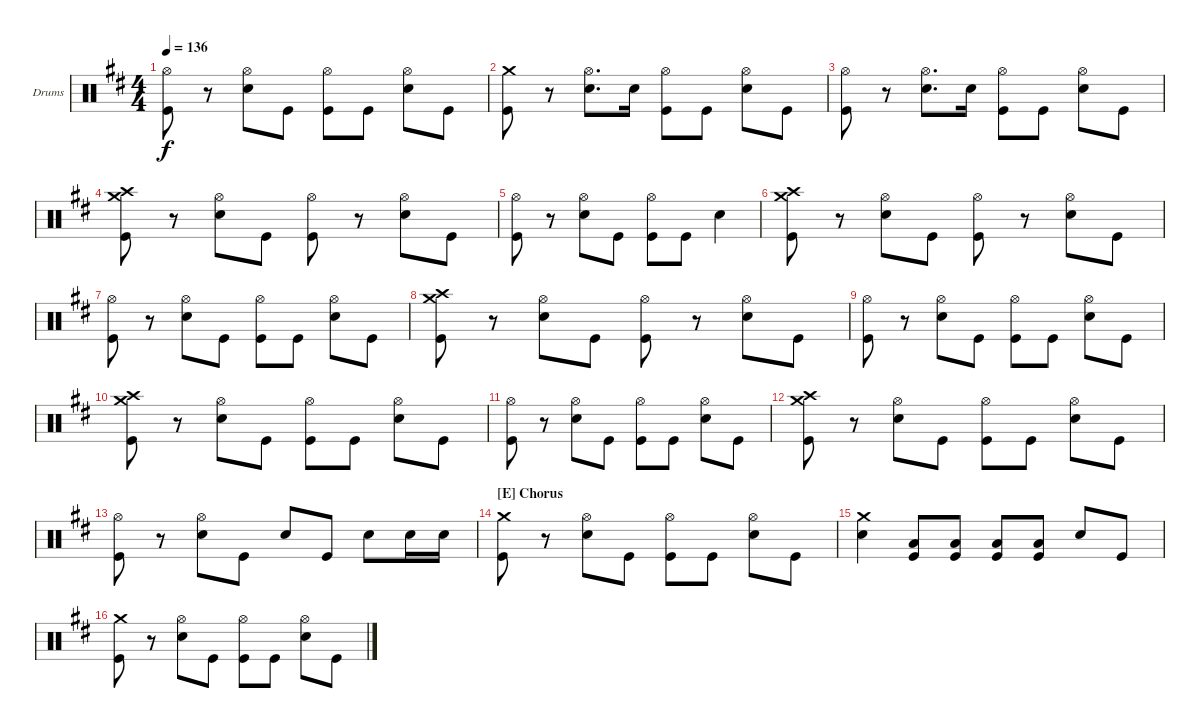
\defaultSystemsLayout 4
\bracketExtendMode groupsimilarinstruments
\firstSystemTrackNameOrientation horizontal
\otherSystemsTrackNameOrientation horizontal
\track ("Drumkit" "Drums") {instrument percussion}
\staff {score}
\articulation defaults
\ts (4 4)
\tempo 136
\clef neutral
\scale
1.05044
\ks d
("Hi-Hat (open)" "Kick (hit)").8{dy f} r.8 ("Hi-Hat (open)" "Snare (hit) 2").8 "Kick (hit)".8 ("Hi-Hat (open)" "Kick (hit)").8 "Kick (hit)".8 ("Hi-Hat (open)" "Snare (hit) 2").8 "Kick (hit)".8 |
\scale
0.949559 ("Crash medium (hit)" "Kick (hit)").8 r.8 ("Hi-Hat (open)" "Snare (hit) 2").8{d} "Snare (hit) 2".16 ("Hi-Hat (open)" "Kick (hit)").8 "Kick (hit)".8 ("Hi-Hat (open)" "Snare (hit) 2").8 "Kick (hit)".8 |
\scale
1.05044 ("Hi-Hat (open)" "Kick (hit)").8 r.8 ("Hi-Hat (open)" "Snare (hit) 2").8{d} "Snare (hit) 2".16 ("Hi-Hat (open)" "Kick (hit)").8 "Kick (hit)".8 ("Hi-Hat (open)" "Snare (hit) 2").8 "Kick (hit)".8 |
\scale
0.949559 ("Crash high (hit)" "Crash medium (hit)" "Kick (hit)").8 r.8 ("Hi-Hat (open)" "Snare (hit) 2").8 "Kick (hit)".8 ("Hi-Hat (open)" "Kick (hit)").8 r.8 ("Hi-Hat (open)" "Snare (hit) 2").8 "Kick (hit)".8 |
\scale
1.05044 ("Hi-Hat (open)" "Kick (hit)").8 r.8 ("Hi-Hat (open)" "Snare (hit) 2").8 "Kick (hit)".8 ("Hi-Hat (open)" "Kick (hit)").8 "Kick (hit)".8 "Snare (hit) 2".4 |
\scale
0.949559 ("Crash high (hit)" "Crash medium (hit)" "Kick (hit)").8 r.8 ("Hi-Hat (open)" "Snare (hit) 2").8 "Kick (hit)".8 ("Hi-Hat (open)" "Kick (hit)").8 r.8 ("Hi-Hat (open)" "Snare (hit) 2").8 "Kick (hit)".8 |
\scale
1.05044 ("Hi-Hat (open)" "Kick (hit)").8 r.8 ("Hi-Hat (open)" "Snare (hit) 2").8 "Kick (hit)".8 ("Hi-Hat (open)" "Kick (hit)").8 "Kick (hit)".8 ("Hi-Hat (open)" "Snare (hit) 2").8 "Kick (hit)".8 |
\scale
0.949559 ("Crash high (hit)" "Crash medium (hit)" "Kick (hit)").8 r.8 ("Hi-Hat (open)" "Snare (hit) 2").8 "Kick (hit)".8 ("Hi-Hat (open)" "Kick (hit)").8 r.8 ("Hi-Hat (open)" "Snare (hit) 2").8 "Kick (hit)".8 |
\scale
1.05044 ("Hi-Hat (open)" "Kick (hit)").8 r.8 ("Hi-Hat (open)" "Snare (hit) 2").8 "Kick (hit)".8 ("Hi-Hat (open)" "Kick (hit)").8 "Kick (hit)".8 ("Hi-Hat (open)" "Snare (hit) 2").8 "Kick (hit)".8 |
\scale
0.949559 ("Crash high (hit)" "Crash medium (hit)" "Kick (hit)").8 r.8 ("Hi-Hat (open)" "Snare (hit) 2").8 "Kick (hit)".8 ("Hi-Hat (open)" "Kick (hit)").8 "Kick (hit)".8 ("Hi-Hat (open)" "Snare (hit) 2").8 "Kick (hit)".8 |
\scale
1.05044 ("Hi-Hat (open)" "Kick (hit)").8 r.8 ("Hi-Hat (open)" "Snare (hit) 2").8 "Kick (hit)".8 ("Hi-Hat (open)" "Kick (hit)").8 "Kick (hit)".8 ("Hi-Hat (open)" "Snare (hit) 2").8 "Kick (hit)".8 |
\scale
0.949559 ("Crash high (hit)" "Crash medium (hit)" "Kick (hit)").8 r.8 ("Hi-Hat (open)" "Snare (hit) 2").8 "Kick (hit)".8 ("Hi-Hat (open)" "Kick (hit)").8 "Kick (hit)".8 ("Hi-Hat (open)" "Snare (hit) 2").8 "Kick (hit)".8 |
\scale
1.05044 ("Hi-Hat (open)" "Kick (hit)").8 r.8 ("Hi-Hat (open)" "Snare (hit) 2").8 "Kick (hit)".8 "Snare (hit) 2".8 "Kick (hit)".8 "Snare (hit) 2".8 "Snare (hit) 2".16 "Snare (hit) 2".16 |
\section ("E" "Chorus")
\scale
0.949559 ("Crash medium (hit)" "Kick (hit)").8 r.8 ("Hi-Hat (open)" "Snare (hit) 2").8 "Kick (hit)".8 ("Hi-Hat (open)" "Kick (hit)").8 "Kick (hit)".8 ("Hi-Hat (open)" "Snare (hit) 2").8 "Kick (hit)".8 |
\scale
1.05044 ("Crash medium (hit)" "Snare (hit) 2").4 ("Low Tom (hit)" "Kick (hit)").8 ("Low Tom (hit)" "Kick (hit)").8 ("Low Tom (hit)" "Kick (hit)").8 ("Low Tom (hit)" "Kick (hit)").8 "Snare (hit) 2".8 "Kick (hit)".8 |
\scale
0.949559 ("Crash medium (hit)" "Kick (hit)").8 r.8 ("Hi-Hat (open)" "Snare (hit) 2").8 "Kick (hit)".8 ("Hi-Hat (open)" "Kick (hit)").8 "Kick (hit)".8 ("Hi-Hat (open)" "Snare (hit) 2").8 "Kick (hit)".8
